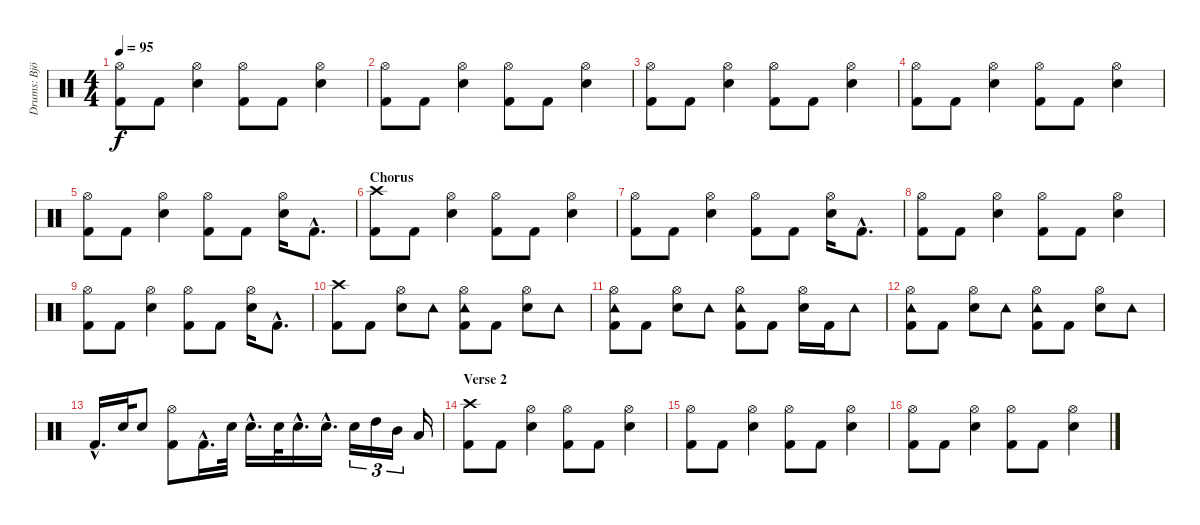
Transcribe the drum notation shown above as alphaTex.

\track ("Drums: Björn Fryklund" "Drums: Bjö") {instrument percussion}
\staff {score}
\articulation defaults
\ts (4 4)
\tempo 95
\clef neutral
\ks c
("Hi-Hat (open)" "Kick (hit) 2").8{dy f} "Kick (hit) 2".8 ("Hi-Hat (open)" "Snare (hit) 2").4 ("Hi-Hat (open)" "Kick (hit) 2").8 "Kick (hit) 2".8 ("Hi-Hat (open)" "Snare (hit) 2").4 |
("Hi-Hat (open)" "Kick (hit) 2").8 "Kick (hit) 2".8 ("Hi-Hat (open)" "Snare (hit) 2").4 ("Hi-Hat (open)" "Kick (hit) 2").8 "Kick (hit) 2".8 ("Hi-Hat (open)" "Snare (hit) 2").4 |
("Hi-Hat (open)" "Kick (hit) 2").8 "Kick (hit) 2".8 ("Hi-Hat (open)" "Snare (hit) 2").4 ("Hi-Hat (open)" "Kick (hit) 2").8 "Kick (hit) 2".8 ("Hi-Hat (open)" "Snare (hit) 2").4 |
("Hi-Hat (open)" "Kick (hit) 2").8 "Kick (hit) 2".8 ("Hi-Hat (open)" "Snare (hit) 2").4 ("Hi-Hat (open)" "Kick (hit) 2").8 "Kick (hit) 2".8 ("Hi-Hat (open)" "Snare (hit) 2").4 |
("Hi-Hat (open)" "Kick (hit) 2").8 "Kick (hit) 2".8 ("Hi-Hat (open)" "Snare (hit) 2").4 ("Hi-Hat (open)" "Kick (hit) 2").8 "Kick (hit) 2".8 ("Hi-Hat (open)" "Snare (hit) 2").16 "Kick (hit) 2"{hac}.8{d} |
\section ("" "Chorus")
("Crash high (hit)" "Kick (hit) 2").8 "Kick (hit) 2".8 ("Hi-Hat (open)" "Snare (hit) 2").4 ("Hi-Hat (open)" "Kick (hit) 2").8 "Kick (hit) 2".8 ("Hi-Hat (open)" "Snare (hit) 2").4 |
("Hi-Hat (open)" "Kick (hit) 2").8 "Kick (hit) 2".8 ("Hi-Hat (open)" "Snare (hit) 2").4 ("Hi-Hat (open)" "Kick (hit) 2").8 "Kick (hit) 2".8 ("Hi-Hat (open)" "Snare (hit) 2").16 "Kick (hit) 2"{hac}.8{d} |
("Hi-Hat (open)" "Kick (hit) 2").8 "Kick (hit) 2".8 ("Hi-Hat (open)" "Snare (hit) 2").4 ("Hi-Hat (open)" "Kick (hit) 2").8 "Kick (hit) 2".8 ("Hi-Hat (open)" "Snare (hit) 2").4 |
("Hi-Hat (open)" "Kick (hit) 2").8 "Kick (hit) 2".8 ("Hi-Hat (open)" "Snare (hit) 2").4 ("Hi-Hat (open)" "Kick (hit) 2").8 "Kick (hit) 2".8 ("Hi-Hat (open)" "Snare (hit) 2").16 "Kick (hit) 2"{hac}.8{d} |
("Crash high (hit)" "Kick (hit) 2").8 "Kick (hit) 2".8 ("Hi-Hat (open)" "Snare (hit) 2").8 "Tambourine (hit)".8 ("Tambourine (hit)" "Hi-Hat (open)" "Kick (hit) 2").8 "Kick (hit) 2".8 ("Hi-Hat (open)" "Snare (hit) 2").8 "Tambourine (hit)".8 |
("Tambourine (hit)" "Hi-Hat (open)" "Kick (hit) 2").8 "Kick (hit) 2".8 ("Hi-Hat (open)" "Snare (hit) 2").8 "Tambourine (hit)".8 ("Tambourine (hit)" "Hi-Hat (open)" "Kick (hit) 2").8 "Kick (hit) 2".8 ("Hi-Hat (open)" "Snare (hit) 2").16 "Kick (hit) 2".16 "Tambourine (hit)".8 |
("Tambourine (hit)" "Hi-Hat (open)" "Kick (hit) 2").8 "Kick (hit) 2".8 ("Hi-Hat (open)" "Snare (hit) 2").8 "Tambourine (hit)".8 ("Tambourine (hit)" "Hi-Hat (open)" "Kick (hit) 2").8 "Kick (hit) 2".8 ("Hi-Hat (open)" "Snare (hit) 2").8 "Tambourine (hit)".8 |
"Kick (hit) 2"{hac}.16{d} "Snare (hit) 2".32 "Snare (hit) 2".8 ("Hi-Hat (open)" "Kick (hit) 2").8 "Kick (hit) 2"{hac}.16{d} "Snare (hit) 2".32 "Snare (hit) 2"{hac}.16{d} "Snare (hit) 2".32 "Snare (hit) 2"{hac}.16{d} "Snare (hit) 2"{hac}.16{d} "Snare (hit) 2".16{tu (3 2)} "High Tom (hit)".16{tu (3 2)} "Mid Tom (hit)".16{tu (3 2)} "Low Tom (hit)".16 |
\section ("" "Verse 2")
("Crash high (hit)" "Kick (hit) 2").8 "Kick (hit) 2".8 ("Hi-Hat (open)" "Snare (hit) 2").4 ("Hi-Hat (open)" "Kick (hit) 2").8 "Kick (hit) 2".8 ("Hi-Hat (open)" "Snare (hit) 2").4 |
("Hi-Hat (open)" "Kick (hit) 2").8 "Kick (hit) 2".8 ("Hi-Hat (open)" "Snare (hit) 2").4 ("Hi-Hat (open)" "Kick (hit) 2").8 "Kick (hit) 2".8 ("Hi-Hat (open)" "Snare (hit) 2").4 |
("Hi-Hat (open)" "Kick (hit) 2").8 "Kick (hit) 2".8 ("Hi-Hat (open)" "Snare (hit) 2").4 ("Hi-Hat (open)" "Kick (hit) 2").8 "Kick (hit) 2".8 ("Hi-Hat (open)" "Snare (hit) 2").4
